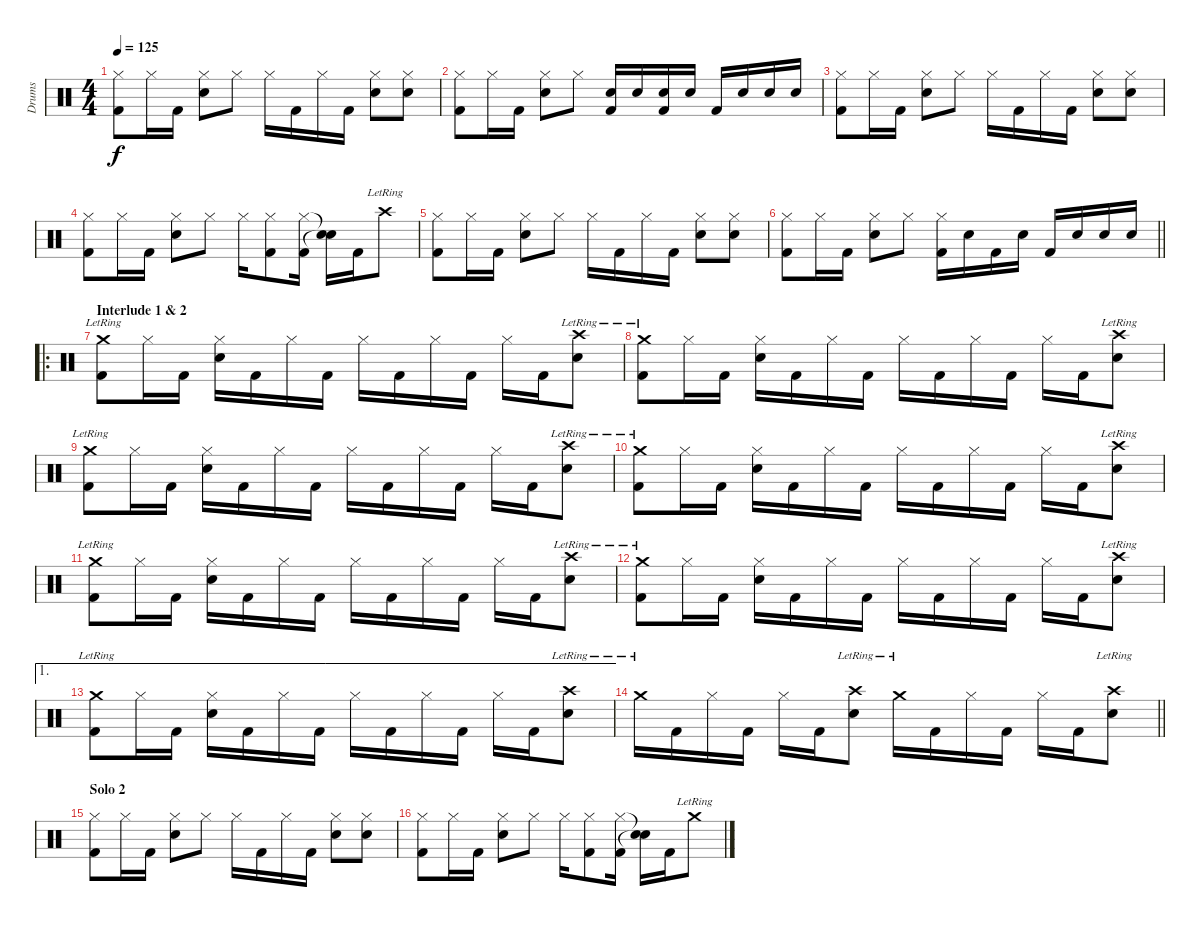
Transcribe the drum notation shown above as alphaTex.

\track ("Drums" "Drums") {instrument percussion}
\staff {score}
\articulation defaults
\ts (4 4)
\tempo 125
\clef neutral
\ks c
("Hi-Hat (closed)" "Kick (hit) 2").8{dy f} "Hi-Hat (closed)".16 "Kick (hit) 2".16 ("Hi-Hat (closed)" "Snare (hit) 2").8 "Hi-Hat (closed)".8 "Hi-Hat (closed)".16 "Kick (hit) 2".16 "Hi-Hat (closed)".16 "Kick (hit) 2".16 ("Hi-Hat (closed)" "Snare (hit) 2").8 ("Hi-Hat (closed)" "Snare (hit) 2").8 |
("Hi-Hat (closed)" "Kick (hit) 2").8 "Hi-Hat (closed)".16 "Kick (hit) 2".16 ("Hi-Hat (closed)" "Snare (hit) 2").8 "Hi-Hat (closed)".8 ("Snare (hit) 2" "Kick (hit) 2").16 "Snare (hit) 2".16 ("Snare (hit) 2" "Kick (hit) 2").16 "Snare (hit) 2".16 "Kick (hit) 2".16 "Snare (hit) 2".16 "Snare (hit) 2".16 "Snare (hit) 2".16 |
("Hi-Hat (closed)" "Kick (hit) 2").8 "Hi-Hat (closed)".16 "Kick (hit) 2".16 ("Hi-Hat (closed)" "Snare (hit) 2").8 "Hi-Hat (closed)".8 "Hi-Hat (closed)".16 "Kick (hit) 2".16 "Hi-Hat (closed)".16 "Kick (hit) 2".16 ("Hi-Hat (closed)" "Snare (hit) 2").8 ("Hi-Hat (closed)" "Snare (hit) 2").8 |
("Hi-Hat (closed)" "Kick (hit) 2").8 "Hi-Hat (closed)".16 "Kick (hit) 2".16 ("Hi-Hat (closed)" "Snare (hit) 2").8 "Hi-Hat (closed)".8 "Hi-Hat (closed)".16 ("Hi-Hat (closed)" "Kick (hit) 2").8 ("Hi-Hat (closed)" "Kick (hit) 2").16 ("Snare (hit)"{t} "Snare (hit)"{t}).16 "Kick (hit) 2".16 "Crash high (hit)"{lr}.8 |
("Hi-Hat (closed)" "Kick (hit) 2").8 "Hi-Hat (closed)".16 "Kick (hit) 2".16 ("Hi-Hat (closed)" "Snare (hit) 2").8 "Hi-Hat (closed)".8 "Hi-Hat (closed)".16 "Kick (hit) 2".16 "Hi-Hat (closed)".16 "Kick (hit) 2".16 ("Hi-Hat (closed)" "Snare (hit) 2").8 ("Hi-Hat (closed)" "Snare (hit) 2").8 |
\barLineRight lightlight
("Hi-Hat (closed)" "Kick (hit) 2").8 "Hi-Hat (closed)".16 "Kick (hit) 2".16 ("Hi-Hat (closed)" "Snare (hit) 2").8 "Hi-Hat (closed)".8 ("Hi-Hat (closed)" "Kick (hit) 2").16 "Snare (hit) 2".16 "Kick (hit) 2".16 "Snare (hit) 2".16 "Kick (hit) 2".16 "Snare (hit) 2".16 "Snare (hit) 2".16 "Snare (hit) 2".16 |
\ro
\section ("" "Interlude 1 & 2")
("Crash medium (hit)"{lr} "Kick (hit) 2").8 "Hi-Hat (closed)".16 "Kick (hit) 2".16 ("Hi-Hat (closed)" "Snare (hit) 2").16 "Kick (hit) 2".16 "Hi-Hat (closed)".16 "Kick (hit) 2".16 "Hi-Hat (closed)".16 "Kick (hit) 2".16 "Hi-Hat (closed)".16 "Kick (hit) 2".16 "Hi-Hat (closed)".16 "Kick (hit) 2".16 ("Crash high (hit)"{lr} "Snare (hit) 2").8 |
("Crash medium (hit)"{lr} "Kick (hit) 2").8 "Hi-Hat (closed)".16 "Kick (hit) 2".16 ("Hi-Hat (closed)" "Snare (hit) 2").16 "Kick (hit) 2".16 "Hi-Hat (closed)".16 "Kick (hit) 2".16 "Hi-Hat (closed)".16 "Kick (hit) 2".16 "Hi-Hat (closed)".16 "Kick (hit) 2".16 "Hi-Hat (closed)".16 "Kick (hit) 2".16 ("Crash high (hit)"{lr} "Snare (hit) 2").8 |
("Crash medium (hit)"{lr} "Kick (hit) 2").8 "Hi-Hat (closed)".16 "Kick (hit) 2".16 ("Hi-Hat (closed)" "Snare (hit) 2").16 "Kick (hit) 2".16 "Hi-Hat (closed)".16 "Kick (hit) 2".16 "Hi-Hat (closed)".16 "Kick (hit) 2".16 "Hi-Hat (closed)".16 "Kick (hit) 2".16 "Hi-Hat (closed)".16 "Kick (hit) 2".16 ("Crash high (hit)"{lr} "Snare (hit) 2").8 |
("Crash medium (hit)"{lr} "Kick (hit) 2").8 "Hi-Hat (closed)".16 "Kick (hit) 2".16 ("Hi-Hat (closed)" "Snare (hit) 2").16 "Kick (hit) 2".16 "Hi-Hat (closed)".16 "Kick (hit) 2".16 "Hi-Hat (closed)".16 "Kick (hit) 2".16 "Hi-Hat (closed)".16 "Kick (hit) 2".16 "Hi-Hat (closed)".16 "Kick (hit) 2".16 ("Crash high (hit)"{lr} "Snare (hit) 2").8 |
("Crash medium (hit)"{lr} "Kick (hit) 2").8 "Hi-Hat (closed)".16 "Kick (hit) 2".16 ("Hi-Hat (closed)" "Snare (hit) 2").16 "Kick (hit) 2".16 "Hi-Hat (closed)".16 "Kick (hit) 2".16 "Hi-Hat (closed)".16 "Kick (hit) 2".16 "Hi-Hat (closed)".16 "Kick (hit) 2".16 "Hi-Hat (closed)".16 "Kick (hit) 2".16 ("Crash high (hit)"{lr} "Snare (hit) 2").8 |
("Crash medium (hit)"{lr} "Kick (hit) 2").8 "Hi-Hat (closed)".16 "Kick (hit) 2".16 ("Hi-Hat (closed)" "Snare (hit) 2").16 "Kick (hit) 2".16 "Hi-Hat (closed)".16 "Kick (hit) 2".16 "Hi-Hat (closed)".16 "Kick (hit) 2".16 "Hi-Hat (closed)".16 "Kick (hit) 2".16 "Hi-Hat (closed)".16 "Kick (hit) 2".16 ("Crash high (hit)"{lr} "Snare (hit) 2").8 |
\ae 1
("Crash medium (hit)"{lr} "Kick (hit) 2").8 "Hi-Hat (closed)".16 "Kick (hit) 2".16 ("Hi-Hat (closed)" "Snare (hit) 2").16 "Kick (hit) 2".16 "Hi-Hat (closed)".16 "Kick (hit) 2".16 "Hi-Hat (closed)".16 "Kick (hit) 2".16 "Hi-Hat (closed)".16 "Kick (hit) 2".16 "Hi-Hat (closed)".16 "Kick (hit) 2".16 ("Crash high (hit)"{lr} "Snare (hit) 2").8 |
\barLineRight lightlight "Crash medium (hit)"{lr}.16 "Kick (hit) 2".16 "Hi-Hat (closed)".16 "Kick (hit) 2".16 "Hi-Hat (closed)".16 "Kick (hit) 2".16
("Crash high (hit)"{lr} "Snare (hit) 2").8 "Crash medium (hit)"{lr}.16 "Kick (hit) 2".16 "Hi-Hat (closed)".16 "Kick (hit) 2".16 "Hi-Hat (closed)".16 "Kick (hit) 2".16 ("Crash high (hit)"{lr} "Snare (hit) 2").8 |
\section ("" "Solo 2")
("Hi-Hat (closed)" "Kick (hit) 2").8 "Hi-Hat (closed)".16 "Kick (hit) 2".16 ("Hi-Hat (closed)" "Snare (hit) 2").8 "Hi-Hat (closed)".8 "Hi-Hat (closed)".16 "Kick (hit) 2".16 "Hi-Hat (closed)".16 "Kick (hit) 2".16 ("Hi-Hat (closed)" "Snare (hit) 2").8 ("Hi-Hat (closed)" "Snare (hit) 2").8 |
("Hi-Hat (closed)" "Kick (hit) 2").8 "Hi-Hat (closed)".16 "Kick (hit) 2".16 ("Hi-Hat (closed)" "Snare (hit) 2").8 "Hi-Hat (closed)".8 "Hi-Hat (closed)".16 ("Hi-Hat (closed)" "Kick (hit) 2").8 ("Hi-Hat (closed)" "Kick (hit) 2").16 ("Snare (hit)"{t} "Snare (hit)"{t}).16 "Kick (hit) 2".16 "Crash medium (hit)"{lr}.8
